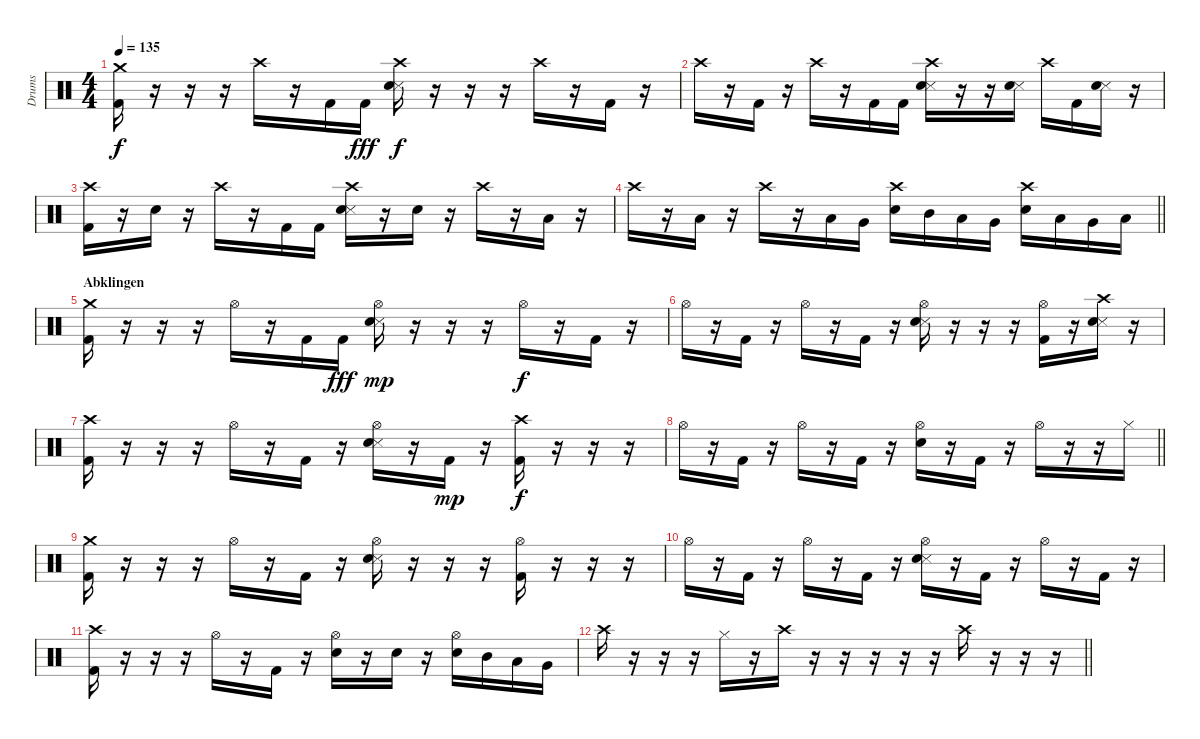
\track ("Drums" "Drums") {instrument percussion}
\staff {score}
\articulation defaults
\ts (4 4)
\tempo 135
\clef neutral
\ks c
("Crash medium (hit)" "Kick (hit) 2").16{dy f balance 8} r.16 r.16 r.16 "Crash high (hit)".16 r.16 "Kick (hit) 2".16 "Kick (hit) 2".16{dy fff} ("Crash high (hit)" "Snare (side stick) 3" "Electric Snare (hit)").16{dy f} r.16 r.16 r.16 "Crash high (hit)".16 r.16 "Kick (hit) 2".16 r.16 |
"Crash high (hit)".16 r.16 "Kick (hit) 2".16 r.16 "Crash high (hit)".16 r.16 "Kick (hit) 2".16 "Kick (hit) 2".16 ("Crash high (hit)" "Snare (side stick) 3" "Electric Snare (hit)").16 r.16 r.16 ("Snare (side stick) 3" "Electric Snare (hit)").16 "Crash high (hit)".16 "Kick (hit) 2".16 ("Snare (side stick) 3" "Electric Snare (hit)").16 r.16 |
("Kick (hit) 2" "Crash high (hit)").16 r.16 "Electric Snare (hit)".16 r.16 "Crash high (hit)".16 r.16 "Kick (hit) 2".16 "Kick (hit) 2".16 ("Snare (side stick) 3" "Electric Snare (hit)" "Crash high (hit)").16 r.16 "Electric Snare (hit)".16 r.16 "Crash high (hit)".16 r.16 "Low Tom (hit)".16 r.16 |
\barLineRight lightlight "Crash high (hit)".16
r.16 "Low Tom (hit)".16 r.16 "Crash high (hit)".16 r.16 "Low Tom (hit)".16 "Very Low Tom (hit)".16 ("Crash high (hit)" "Electric Snare (hit)").16 "Mid Tom (hit)".16 "Low Tom (hit)".16 "Very Low Tom (hit)".16 ("Crash high (hit)" "Electric Snare (hit)").16 "Low Tom (hit)".16 "Very Low Tom (hit)".16 "Low Floor Tom (hit)".16 |
\section ("" "Abklingen")
("Crash medium (hit)" "Kick (hit) 2").16 r.16 r.16 r.16 "Hi-Hat (open)".16 r.16 "Kick (hit) 2".16 "Kick (hit) 2".16{dy fff} ("Hi-Hat (open)" "Snare (side stick) 3" "Electric Snare (hit)").16{dy mp} r.16 r.16 r.16 "Hi-Hat (open)".16{dy f} r.16 "Kick (hit) 2".16 r.16 |
"Hi-Hat (open)".16 r.16 "Kick (hit) 2".16 r.16 "Hi-Hat (open)".16 r.16 "Kick (hit) 2".16 r.16 ("Hi-Hat (open)" "Snare (side stick) 3" "Electric Snare (hit)").16 r.16 r.16 r.16 ("Hi-Hat (open)" "Kick (hit) 2").16 r.16 ("Snare (side stick) 3" "Electric Snare (hit)" "Crash high (hit)").16 r.16 |
("Kick (hit) 2" "Crash high (hit)").16 r.16 r.16 r.16 "Hi-Hat (open)".16 r.16 "Kick (hit) 2".16 r.16 ("Hi-Hat (open)" "Snare (side stick) 3" "Electric Snare (hit)").16 r.16 "Kick (hit) 2".16{dy mp} r.16 ("Kick (hit) 2" "Crash high (hit)").16{dy f} r.16 r.16 r.16 |
\barLineRight lightlight "Hi-Hat (open)".16
r.16 "Kick (hit) 2".16 r.16 "Hi-Hat (open)".16 r.16 "Kick (hit) 2".16 r.16 ("Hi-Hat (open)" "Electric Snare (hit)").16 r.16 "Kick (hit) 2".16 r.16 "Hi-Hat (open)".16 r.16 r.16 "Hi-Hat (closed)".16 |
("Crash medium (hit)" "Kick (hit) 2").16 r.16 r.16 r.16 "Hi-Hat (open)".16 r.16 "Kick (hit) 2".16 r.16 ("Hi-Hat (open)" "Snare (side stick) 3" "Electric Snare (hit)").16 r.16 r.16 r.16 ("Hi-Hat (open)" "Kick (hit) 2").16 r.16 r.16 r.16 |
"Hi-Hat (open)".16 r.16 "Kick (hit) 2".16 r.16 "Hi-Hat (open)".16 r.16 "Kick (hit) 2".16 r.16 ("Hi-Hat (open)" "Snare (side stick) 3" "Electric Snare (hit)").16 r.16 "Kick (hit) 2".16 r.16 "Hi-Hat (open)".16 r.16 "Kick (hit) 2".16 r.16 |
("Kick (hit) 2" "Crash high (hit)").16 r.16 r.16 r.16 "Hi-Hat (open)".16 r.16 "Kick (hit) 2".16 r.16 ("Hi-Hat (open)" "Electric Snare (hit)").16 r.16 "Electric Snare (hit)".16 r.16 ("Hi-Hat (open)" "Snare (hit) 2").16 "Mid Tom (hit)".16 "Low Tom (hit)".16 "Very Low Tom (hit)".16 |
\barLineRight lightlight "Crash high (hit)".16{balance 3}
r.16 r.16 r.16 "Hi-Hat (closed)".16 r.16 "Crash high (hit)".16{balance 8} r.16 r.16 r.16 r.16 r.16 "Crash high (hit)".16{balance 12} r.16 r.16 r.16
